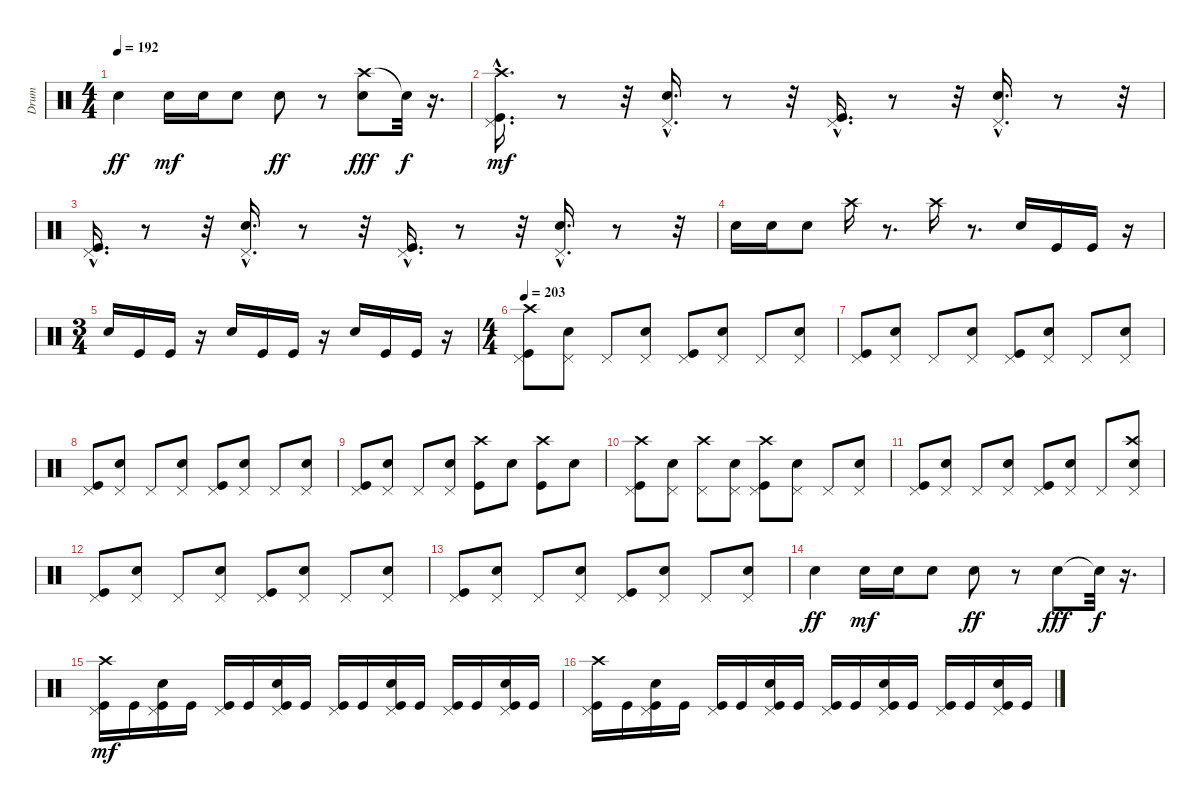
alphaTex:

\track ("Drum" "Drum") {instrument percussion}
\staff {score}
\articulation defaults
\ts (4 4)
\tempo 192
\clef neutral
\ks c "Snare (hit) 2".4{dy ff} "Snare (hit) 2".16{dy mf} "Snare (hit) 2".16 "Snare (hit) 2".8 "Snare (hit) 2".8{dy ff}
r.8 ("Crash high (hit)" "Snare (hit) 2").8{dy fff} "Snare (hit)"{t}.32{dy f} r.16{d} |
("Crash high (hit)" "Pedal Hi-Hat (hit)" "Kick (hit)"{hac}).16{d dy mf} r.8 r.32 ("Pedal Hi-Hat (hit)" "Snare (hit) 2"{hac}).16{d} r.8 r.32 ("Pedal Hi-Hat (hit)" "Kick (hit)"{hac}).16{d} r.8 r.32 ("Pedal Hi-Hat (hit)" "Snare (hit) 2"{hac}).16{d} r.8 r.32 |
("Pedal Hi-Hat (hit)" "Kick (hit)"{hac}).16{d} r.8 r.32 ("Pedal Hi-Hat (hit)" "Snare (hit) 2"{hac}).16{d} r.8 r.32 ("Pedal Hi-Hat (hit)" "Kick (hit)"{hac}).16{d} r.8 r.32 ("Pedal Hi-Hat (hit)" "Snare (hit) 2"{hac}).16{d} r.8 r.32 |
"Snare (hit) 2".16 "Snare (hit) 2".16 "Snare (hit) 2".8 "Crash high (hit)".16 r.8{d} "Crash high (hit)".16 r.8{d} "Snare (hit) 2".16 "Kick (hit)".16 "Kick (hit)".16 r.16 |
\ts (3 4)
"Snare (hit) 2".16 "Kick (hit)".16 "Kick (hit)".16 r.16 "Snare (hit) 2".16 "Kick (hit)".16 "Kick (hit)".16 r.16 "Snare (hit) 2".16 "Kick (hit)".16 "Kick (hit)".16 r.16 |
\ts (4 4)
\tempo 203
("Pedal Hi-Hat (hit)" "Kick (hit)" "Crash high (hit)").8 ("Pedal Hi-Hat (hit)" "Snare (hit) 2").8 "Pedal Hi-Hat (hit)".8 ("Pedal Hi-Hat (hit)" "Snare (hit) 2").8 ("Pedal Hi-Hat (hit)" "Kick (hit)").8 ("Pedal Hi-Hat (hit)" "Snare (hit) 2").8 "Pedal Hi-Hat (hit)".8 ("Pedal Hi-Hat (hit)" "Snare (hit) 2").8 |
("Pedal Hi-Hat (hit)" "Kick (hit)").8 ("Pedal Hi-Hat (hit)" "Snare (hit) 2").8 "Pedal Hi-Hat (hit)".8 ("Pedal Hi-Hat (hit)" "Snare (hit) 2").8 ("Pedal Hi-Hat (hit)" "Kick (hit)").8 ("Pedal Hi-Hat (hit)" "Snare (hit) 2").8 "Pedal Hi-Hat (hit)".8 ("Pedal Hi-Hat (hit)" "Snare (hit) 2").8 |
("Pedal Hi-Hat (hit)" "Kick (hit)").8 ("Pedal Hi-Hat (hit)" "Snare (hit) 2").8 "Pedal Hi-Hat (hit)".8 ("Pedal Hi-Hat (hit)" "Snare (hit) 2").8 ("Pedal Hi-Hat (hit)" "Kick (hit)").8 ("Pedal Hi-Hat (hit)" "Snare (hit) 2").8 "Pedal Hi-Hat (hit)".8 ("Pedal Hi-Hat (hit)" "Snare (hit) 2").8 |
("Pedal Hi-Hat (hit)" "Kick (hit)").8 ("Pedal Hi-Hat (hit)" "Snare (hit) 2").8 "Pedal Hi-Hat (hit)".8 ("Pedal Hi-Hat (hit)" "Snare (hit) 2").8 ("Crash high (hit)" "Kick (hit)").8 "Snare (hit) 2".8 ("Crash high (hit)" "Kick (hit)").8 "Snare (hit) 2".8 |
("Crash high (hit)" "Pedal Hi-Hat (hit)" "Kick (hit)").8 ("Pedal Hi-Hat (hit)" "Snare (hit) 2").8 ("Crash high (hit)" "Pedal Hi-Hat (hit)").8 ("Pedal Hi-Hat (hit)" "Snare (hit) 2").8 ("Crash high (hit)" "Pedal Hi-Hat (hit)" "Kick (hit)").8 ("Pedal Hi-Hat (hit)" "Snare (hit) 2").8 "Pedal Hi-Hat (hit)".8 ("Pedal Hi-Hat (hit)" "Snare (hit) 2").8 |
("Pedal Hi-Hat (hit)" "Kick (hit)").8 ("Pedal Hi-Hat (hit)" "Snare (hit) 2").8 "Pedal Hi-Hat (hit)".8 ("Pedal Hi-Hat (hit)" "Snare (hit) 2").8 ("Pedal Hi-Hat (hit)" "Kick (hit)").8 ("Pedal Hi-Hat (hit)" "Snare (hit) 2").8 "Pedal Hi-Hat (hit)".8 ("Crash high (hit)" "Pedal Hi-Hat (hit)" "Snare (hit) 2").8 |
("Pedal Hi-Hat (hit)" "Kick (hit)").8 ("Pedal Hi-Hat (hit)" "Snare (hit) 2").8 "Pedal Hi-Hat (hit)".8 ("Pedal Hi-Hat (hit)" "Snare (hit) 2").8 ("Pedal Hi-Hat (hit)" "Kick (hit)").8 ("Pedal Hi-Hat (hit)" "Snare (hit) 2").8 "Pedal Hi-Hat (hit)".8 ("Pedal Hi-Hat (hit)" "Snare (hit) 2").8 |
("Pedal Hi-Hat (hit)" "Kick (hit)").8 ("Pedal Hi-Hat (hit)" "Snare (hit) 2").8 "Pedal Hi-Hat (hit)".8 ("Pedal Hi-Hat (hit)" "Snare (hit) 2").8 ("Pedal Hi-Hat (hit)" "Kick (hit)").8 ("Pedal Hi-Hat (hit)" "Snare (hit) 2").8 "Pedal Hi-Hat (hit)".8 ("Pedal Hi-Hat (hit)" "Snare (hit) 2").8 |
"Snare (hit) 2".4{dy ff} "Snare (hit) 2".16{dy mf} "Snare (hit) 2".16 "Snare (hit) 2".8 "Snare (hit) 2".8{dy ff} r.8 "Snare (hit) 2".8{dy fff} "Snare (hit)"{t}.32{dy f} r.16{d} |
("Crash high (hit)" "Pedal Hi-Hat (hit)" "Kick (hit)").16{dy mf} "Kick (hit)".16 ("Pedal Hi-Hat (hit)" "Snare (hit) 2" "Kick (hit)").16 "Kick (hit)".16 ("Pedal Hi-Hat (hit)" "Kick (hit)").16 "Kick (hit)".16 ("Pedal Hi-Hat (hit)" "Snare (hit) 2" "Kick (hit)").16 "Kick (hit)".16 ("Pedal Hi-Hat (hit)" "Kick (hit)").16 "Kick (hit)".16 ("Pedal Hi-Hat (hit)" "Snare (hit) 2" "Kick (hit)").16 "Kick (hit)".16 ("Pedal Hi-Hat (hit)" "Kick (hit)").16 "Kick (hit)".16 ("Pedal Hi-Hat (hit)" "Snare (hit) 2" "Kick (hit)").16 "Kick (hit)".16 |
("Crash high (hit)" "Pedal Hi-Hat (hit)" "Kick (hit)").16 "Kick (hit)".16 ("Pedal Hi-Hat (hit)" "Snare (hit) 2" "Kick (hit)").16 "Kick (hit)".16 ("Pedal Hi-Hat (hit)" "Kick (hit)").16 "Kick (hit)".16 ("Pedal Hi-Hat (hit)" "Snare (hit) 2" "Kick (hit)").16 "Kick (hit)".16 ("Pedal Hi-Hat (hit)" "Kick (hit)").16 "Kick (hit)".16 ("Pedal Hi-Hat (hit)" "Snare (hit) 2" "Kick (hit)").16 "Kick (hit)".16 ("Pedal Hi-Hat (hit)" "Kick (hit)").16 "Kick (hit)".16 ("Pedal Hi-Hat (hit)" "Snare (hit) 2" "Kick (hit)").16 "Kick (hit)".16
